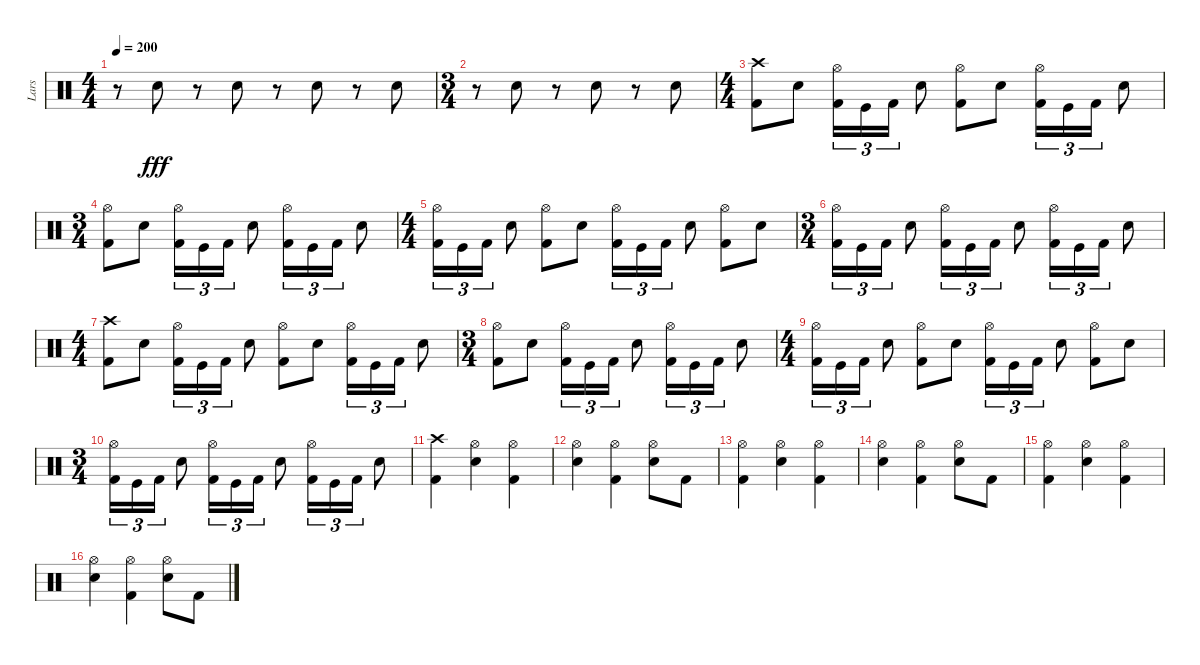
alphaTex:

\track ("Lars" "Lars") {instrument percussion}
\staff {score}
\articulation defaults
\ts (4 4)
\tempo 200
\clef neutral
\ks c
r.8{dy fff} "Snare (hit) 2".8 r.8 "Snare (hit) 2".8 r.8 "Snare (hit) 2".8 r.8 "Snare (hit) 2".8 |
\ts (3 4)
r.8 "Snare (hit) 2".8 r.8 "Snare (hit) 2".8 r.8 "Snare (hit) 2".8 |
\ts (4 4)
("Crash high (hit)" "Kick (hit) 2").8 "Snare (hit) 2".8 ("Hi-Hat (open)" "Kick (hit) 2").16{tu (3 2)} "Kick (hit)".16{tu (3 2)} "Kick (hit) 2".16{tu (3 2)} "Snare (hit) 2".8 ("Hi-Hat (open)" "Kick (hit) 2").8 "Snare (hit) 2".8 ("Hi-Hat (open)" "Kick (hit) 2").16{tu (3 2)} "Kick (hit)".16{tu (3 2)} "Kick (hit) 2".16{tu (3 2)} "Snare (hit) 2".8 |
\ts (3 4)
("Hi-Hat (open)" "Kick (hit) 2").8 "Snare (hit) 2".8 ("Hi-Hat (open)" "Kick (hit) 2").16{tu (3 2)} "Kick (hit)".16{tu (3 2)} "Kick (hit) 2".16{tu (3 2)} "Snare (hit) 2".8 ("Hi-Hat (open)" "Kick (hit) 2").16{tu (3 2)} "Kick (hit)".16{tu (3 2)} "Kick (hit) 2".16{tu (3 2)} "Snare (hit) 2".8 |
\ts (4 4)
("Hi-Hat (open)" "Kick (hit) 2").16{tu (3 2)} "Kick (hit)".16{tu (3 2)} "Kick (hit) 2".16{tu (3 2)} "Snare (hit) 2".8 ("Hi-Hat (open)" "Kick (hit) 2").8 "Snare (hit) 2".8 ("Hi-Hat (open)" "Kick (hit) 2").16{tu (3 2)} "Kick (hit)".16{tu (3 2)} "Kick (hit) 2".16{tu (3 2)} "Snare (hit) 2".8 ("Hi-Hat (open)" "Kick (hit) 2").8 "Snare (hit) 2".8 |
\ts (3 4)
("Hi-Hat (open)" "Kick (hit) 2").16{tu (3 2)} "Kick (hit)".16{tu (3 2)} "Kick (hit) 2".16{tu (3 2)} "Snare (hit) 2".8 ("Hi-Hat (open)" "Kick (hit) 2").16{tu (3 2)} "Kick (hit)".16{tu (3 2)} "Kick (hit) 2".16{tu (3 2)} "Snare (hit) 2".8 ("Hi-Hat (open)" "Kick (hit) 2").16{tu (3 2)} "Kick (hit)".16{tu (3 2)} "Kick (hit) 2".16{tu (3 2)} "Snare (hit) 2".8 |
\ts (4 4)
("Crash high (hit)" "Kick (hit) 2").8 "Snare (hit) 2".8 ("Hi-Hat (open)" "Kick (hit) 2").16{tu (3 2)} "Kick (hit)".16{tu (3 2)} "Kick (hit) 2".16{tu (3 2)} "Snare (hit) 2".8 ("Hi-Hat (open)" "Kick (hit) 2").8 "Snare (hit) 2".8 ("Hi-Hat (open)" "Kick (hit) 2").16{tu (3 2)} "Kick (hit)".16{tu (3 2)} "Kick (hit) 2".16{tu (3 2)} "Snare (hit) 2".8 |
\ts (3 4)
("Hi-Hat (open)" "Kick (hit) 2").8 "Snare (hit) 2".8 ("Hi-Hat (open)" "Kick (hit) 2").16{tu (3 2)} "Kick (hit)".16{tu (3 2)} "Kick (hit) 2".16{tu (3 2)} "Snare (hit) 2".8 ("Hi-Hat (open)" "Kick (hit) 2").16{tu (3 2)} "Kick (hit)".16{tu (3 2)} "Kick (hit) 2".16{tu (3 2)} "Snare (hit) 2".8 |
\ts (4 4)
("Hi-Hat (open)" "Kick (hit) 2").16{tu (3 2)} "Kick (hit)".16{tu (3 2)} "Kick (hit) 2".16{tu (3 2)} "Snare (hit) 2".8 ("Hi-Hat (open)" "Kick (hit) 2").8 "Snare (hit) 2".8 ("Hi-Hat (open)" "Kick (hit) 2").16{tu (3 2)} "Kick (hit)".16{tu (3 2)} "Kick (hit) 2".16{tu (3 2)} "Snare (hit) 2".8 ("Hi-Hat (open)" "Kick (hit) 2").8 "Snare (hit) 2".8 |
\ts (3 4)
("Hi-Hat (open)" "Kick (hit) 2").16{tu (3 2)} "Kick (hit)".16{tu (3 2)} "Kick (hit) 2".16{tu (3 2)} "Snare (hit) 2".8 ("Hi-Hat (open)" "Kick (hit) 2").16{tu (3 2)} "Kick (hit)".16{tu (3 2)} "Kick (hit) 2".16{tu (3 2)} "Snare (hit) 2".8 ("Hi-Hat (open)" "Kick (hit) 2").16{tu (3 2)} "Kick (hit)".16{tu (3 2)} "Kick (hit) 2".16{tu (3 2)} "Snare (hit) 2".8 |
("Crash high (hit)" "Kick (hit) 2").4 ("Hi-Hat (open)" "Snare (hit) 2").4 ("Hi-Hat (open)" "Kick (hit) 2").4 |
("Hi-Hat (open)" "Snare (hit) 2").4 ("Hi-Hat (open)" "Kick (hit) 2").4 ("Hi-Hat (open)" "Snare (hit) 2").8 "Kick (hit) 2".8 |
("Hi-Hat (open)" "Kick (hit) 2").4 ("Hi-Hat (open)" "Snare (hit) 2").4 ("Hi-Hat (open)" "Kick (hit) 2").4 |
("Hi-Hat (open)" "Snare (hit) 2").4 ("Hi-Hat (open)" "Kick (hit) 2").4 ("Hi-Hat (open)" "Snare (hit) 2").8 "Kick (hit) 2".8 |
("Hi-Hat (open)" "Kick (hit) 2").4 ("Hi-Hat (open)" "Snare (hit) 2").4 ("Hi-Hat (open)" "Kick (hit) 2").4 |
("Hi-Hat (open)" "Snare (hit) 2").4 ("Hi-Hat (open)" "Kick (hit) 2").4 ("Hi-Hat (open)" "Snare (hit) 2").8 "Kick (hit) 2".8
